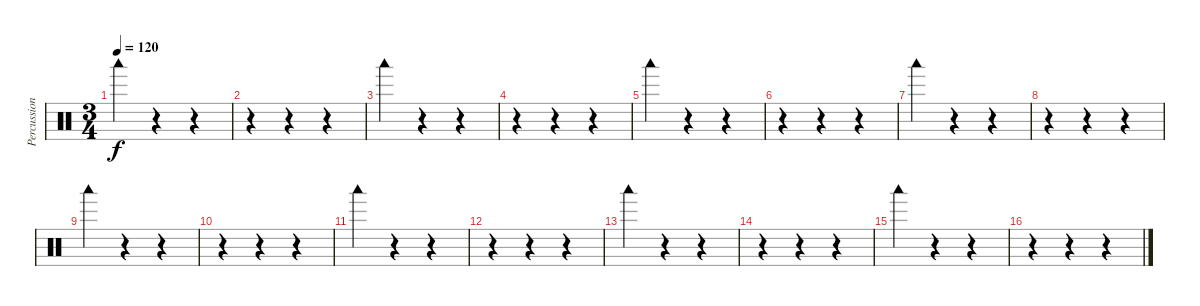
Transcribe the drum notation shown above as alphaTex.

\track ("Percussions" "Percussion") {instrument percussion}
\staff {score}
\articulation defaults
\ts (3 4)
\tempo 120
\clef neutral
\ks c "Woodblock low (hit)".4{dy f}
r.4 r.4 |
r.4 r.4 r.4 |
"Woodblock low (hit)".4 r.4 r.4 |
r.4 r.4 r.4 |
"Woodblock low (hit)".4 r.4 r.4 |
r.4 r.4 r.4 |
"Woodblock low (hit)".4 r.4 r.4 |
r.4 r.4 r.4 |
"Woodblock low (hit)".4 r.4 r.4 |
r.4 r.4 r.4 |
"Woodblock low (hit)".4 r.4 r.4 |
r.4 r.4 r.4 |
"Woodblock low (hit)".4 r.4 r.4 |
r.4 r.4 r.4 |
"Woodblock low (hit)".4 r.4 r.4 |
r.4 r.4 r.4
